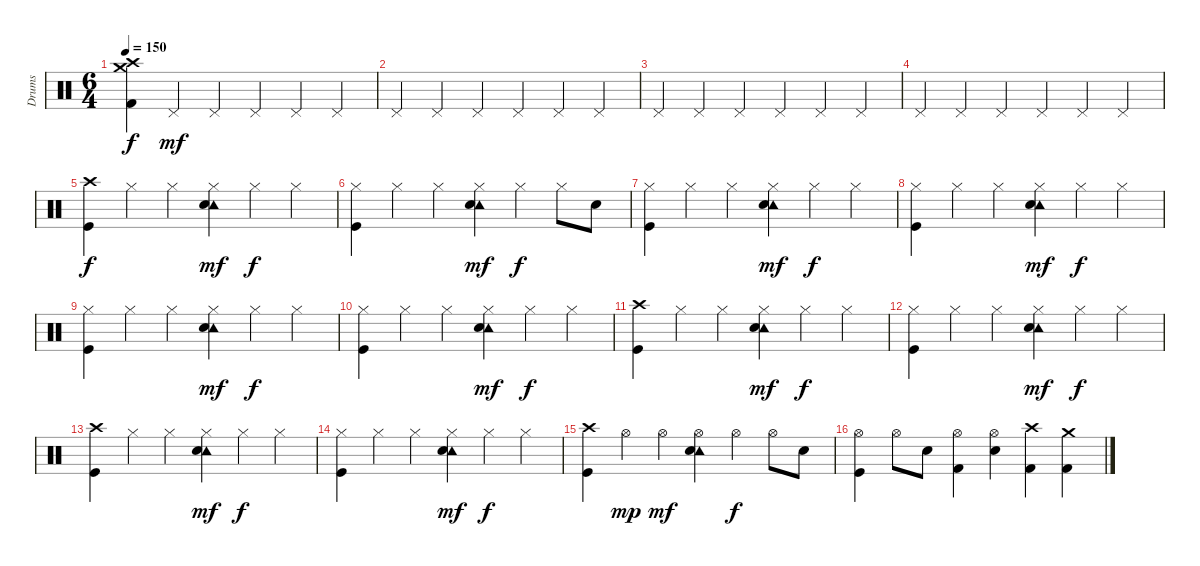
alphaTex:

\track ("Drums" "Drums") {instrument percussion}
\staff {score}
\articulation defaults
\ts (6 4)
\tempo 150
\clef neutral
\ks c
("Crash medium (hit)" "Crash high (hit)" "Kick (hit) 2").4{dy f} "Pedal Hi-Hat (hit)".4{dy mf} "Pedal Hi-Hat (hit)".4 "Pedal Hi-Hat (hit)".4 "Pedal Hi-Hat (hit)".4 "Pedal Hi-Hat (hit)".4 |
"Pedal Hi-Hat (hit)".4 "Pedal Hi-Hat (hit)".4 "Pedal Hi-Hat (hit)".4 "Pedal Hi-Hat (hit)".4 "Pedal Hi-Hat (hit)".4 "Pedal Hi-Hat (hit)".4 |
"Pedal Hi-Hat (hit)".4 "Pedal Hi-Hat (hit)".4 "Pedal Hi-Hat (hit)".4 "Pedal Hi-Hat (hit)".4 "Pedal Hi-Hat (hit)".4 "Pedal Hi-Hat (hit)".4 |
"Pedal Hi-Hat (hit)".4 "Pedal Hi-Hat (hit)".4 "Pedal Hi-Hat (hit)".4 "Pedal Hi-Hat (hit)".4 "Pedal Hi-Hat (hit)".4 "Pedal Hi-Hat (hit)".4 |
("Crash high (hit)" "Kick (hit)").4{dy f} "Hi-Hat (closed)".4 "Hi-Hat (closed)".4 ("Tambourine (hit)" "Hi-Hat (closed)" "Electric Snare (hit)").4{dy mf} "Hi-Hat (closed)".4{dy f} "Hi-Hat (closed)".4 |
("Hi-Hat (closed)" "Kick (hit)").4 "Hi-Hat (closed)".4 "Hi-Hat (closed)".4 ("Tambourine (hit)" "Hi-Hat (closed)" "Electric Snare (hit)").4{dy mf} "Hi-Hat (closed)".4{dy f} "Hi-Hat (closed)".8 "Electric Snare (hit)".8 |
("Hi-Hat (closed)" "Kick (hit)").4 "Hi-Hat (closed)".4 "Hi-Hat (closed)".4 ("Tambourine (hit)" "Hi-Hat (closed)" "Electric Snare (hit)").4{dy mf} "Hi-Hat (closed)".4{dy f} "Hi-Hat (closed)".4 |
("Hi-Hat (closed)" "Kick (hit)").4 "Hi-Hat (closed)".4 "Hi-Hat (closed)".4 ("Tambourine (hit)" "Hi-Hat (closed)" "Electric Snare (hit)").4{dy mf} "Hi-Hat (closed)".4{dy f} "Hi-Hat (closed)".4 |
("Hi-Hat (closed)" "Kick (hit)").4 "Hi-Hat (closed)".4 "Hi-Hat (closed)".4 ("Tambourine (hit)" "Hi-Hat (closed)" "Electric Snare (hit)").4{dy mf} "Hi-Hat (closed)".4{dy f} "Hi-Hat (closed)".4 |
("Hi-Hat (closed)" "Kick (hit)").4 "Hi-Hat (closed)".4 "Hi-Hat (closed)".4 ("Tambourine (hit)" "Hi-Hat (closed)" "Electric Snare (hit)").4{dy mf} "Hi-Hat (closed)".4{dy f} "Hi-Hat (closed)".4 |
("Crash high (hit)" "Kick (hit)").4 "Hi-Hat (closed)".4 "Hi-Hat (closed)".4 ("Tambourine (hit)" "Hi-Hat (closed)" "Electric Snare (hit)").4{dy mf} "Hi-Hat (closed)".4{dy f} "Hi-Hat (closed)".4 |
("Hi-Hat (closed)" "Kick (hit)").4 "Hi-Hat (closed)".4 "Hi-Hat (closed)".4 ("Tambourine (hit)" "Hi-Hat (closed)" "Electric Snare (hit)").4{dy mf} "Hi-Hat (closed)".4{dy f} "Hi-Hat (closed)".4 |
("Crash high (hit)" "Kick (hit)").4 "Hi-Hat (closed)".4 "Hi-Hat (closed)".4 ("Tambourine (hit)" "Hi-Hat (closed)" "Electric Snare (hit)").4{dy mf} "Hi-Hat (closed)".4{dy f} "Hi-Hat (closed)".4 |
("Hi-Hat (closed)" "Kick (hit)").4 "Hi-Hat (closed)".4 "Hi-Hat (closed)".4 ("Tambourine (hit)" "Hi-Hat (closed)" "Electric Snare (hit)").4{dy mf} "Hi-Hat (closed)".4{dy f} "Hi-Hat (closed)".4 |
("Crash high (hit)" "Kick (hit)").4 "Hi-Hat (open)".4{dy mp} "Hi-Hat (open)".4{dy mf} ("Tambourine (hit)" "Hi-Hat (open)" "Electric Snare (hit)").4 "Hi-Hat (open)".4{dy f} "Hi-Hat (open)".8 "Electric Snare (hit)".8 |
("Hi-Hat (open)" "Kick (hit)").4 "Hi-Hat (open)".8 "Electric Snare (hit)".8 ("Hi-Hat (open)" "Kick (hit) 2").4 ("Hi-Hat (open)" "Electric Snare (hit)").4 ("Crash high (hit)" "Kick (hit) 2").4 ("Crash medium (hit)" "Kick (hit) 2").4
